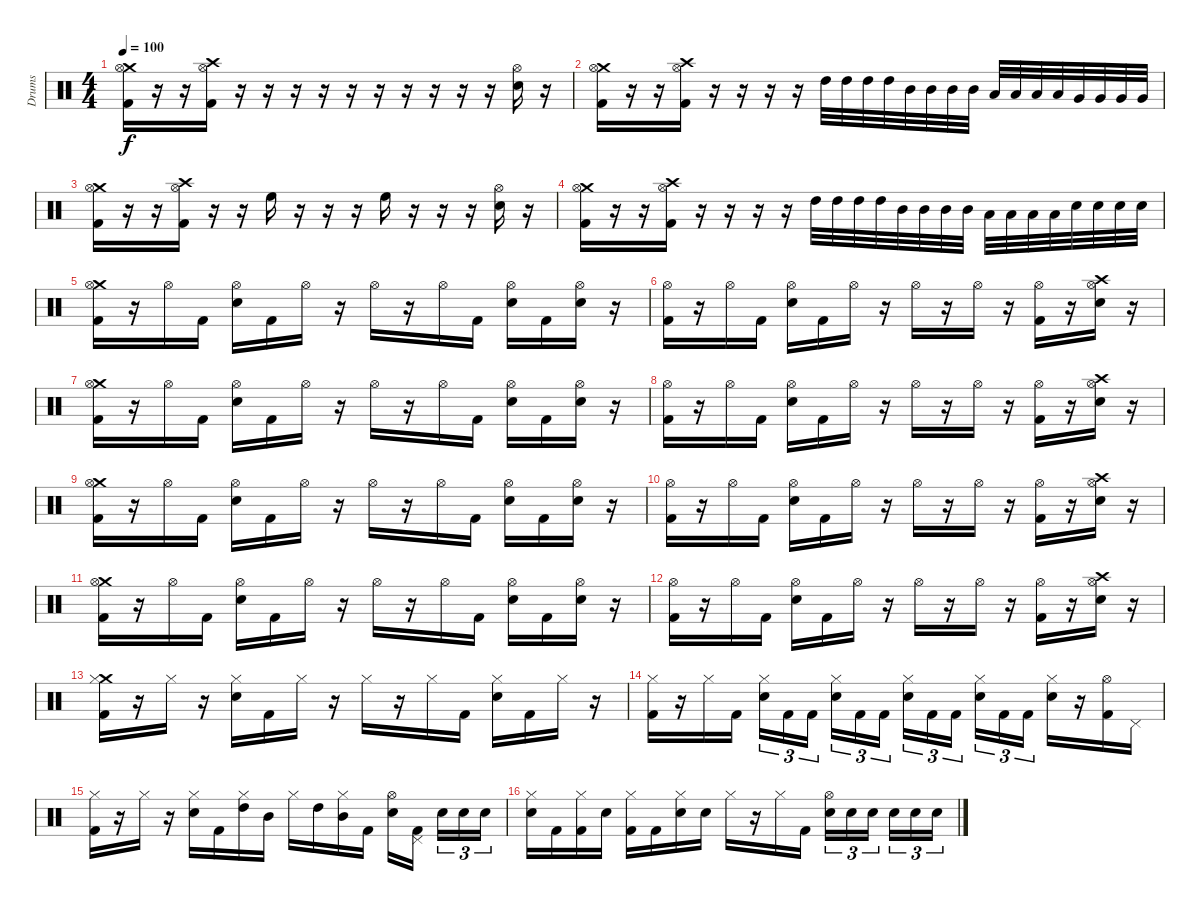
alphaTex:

\track ("Drums" "Drums") {instrument percussion}
\staff {score}
\articulation defaults
\ts (4 4)
\tempo 100
\clef neutral
\ks c
("Crash medium (hit)" "Hi-Hat (open)" "Kick (hit) 2").16{dy f} r.16 r.16 ("Crash high (hit)" "Hi-Hat (open)" "Kick (hit) 2").16 r.16 r.16 r.16 r.16 r.16 r.16 r.16 r.16 r.16 r.16 ("Hi-Hat (open)" "Electric Snare (hit)").16 r.16 |
("Crash medium (hit)" "Hi-Hat (open)" "Kick (hit) 2").16 r.16 r.16 ("Crash high (hit)" "Hi-Hat (open)" "Kick (hit) 2").16 r.16 r.16 r.16 r.16 "High Tom (hit)".32 "High Tom (hit)".32 "High Tom (hit)".32 "High Tom (hit)".32 "Mid Tom (hit)".32 "Mid Tom (hit)".32 "Mid Tom (hit)".32 "Mid Tom (hit)".32 "Low Tom (hit)".32 "Low Tom (hit)".32 "Low Tom (hit)".32 "Low Tom (hit)".32 "Very Low Tom (hit)".32 "Very Low Tom (hit)".32 "Very Low Tom (hit)".32 "Very Low Tom (hit)".32 |
("Crash medium (hit)" "Hi-Hat (open)" "Kick (hit) 2").16 r.16 r.16 ("Crash high (hit)" "Hi-Hat (open)" "Kick (hit) 2").16 r.16 r.16 "High Floor Tom (hit)".16 r.16 r.16 r.16 "High Floor Tom (hit)".16 r.16 r.16 r.16 ("Hi-Hat (open)" "Electric Snare (hit)").16 r.16 |
("Crash medium (hit)" "Hi-Hat (open)" "Kick (hit) 2").16 r.16 r.16 ("Crash high (hit)" "Hi-Hat (open)" "Kick (hit) 2").16 r.16 r.16 r.16 r.16 "High Tom (hit)".32 "High Tom (hit)".32 "High Tom (hit)".32 "High Tom (hit)".32 "Mid Tom (hit)".32 "Mid Tom (hit)".32 "Mid Tom (hit)".32 "Mid Tom (hit)".32 "Low Tom (hit)".32 "Low Tom (hit)".32 "Low Tom (hit)".32 "Low Tom (hit)".32 "Electric Snare (hit)".32 "Electric Snare (hit)".32 "Electric Snare (hit)".32 "Electric Snare (hit)".32 |
("Crash medium (hit)" "Hi-Hat (open)" "Kick (hit) 2").16 r.16 "Hi-Hat (open)".16 "Kick (hit) 2".16 ("Hi-Hat (open)" "Electric Snare (hit)").16 "Kick (hit) 2".16 "Hi-Hat (open)".16 r.16 "Hi-Hat (open)".16 r.16 "Hi-Hat (open)".16 "Kick (hit) 2".16 ("Hi-Hat (open)" "Electric Snare (hit)").16 "Kick (hit) 2".16 ("Hi-Hat (open)" "Electric Snare (hit)").16 r.16 |
("Hi-Hat (open)" "Kick (hit) 2").16 r.16 "Hi-Hat (open)".16 "Kick (hit) 2".16 ("Hi-Hat (open)" "Electric Snare (hit)").16 "Kick (hit) 2".16 "Hi-Hat (open)".16 r.16 "Hi-Hat (open)".16 r.16 "Hi-Hat (open)".16 r.16 ("Hi-Hat (open)" "Kick (hit) 2").16 r.16 ("Crash high (hit)" "Hi-Hat (open)" "Electric Snare (hit)").16 r.16 |
("Crash medium (hit)" "Hi-Hat (open)" "Kick (hit) 2").16 r.16 "Hi-Hat (open)".16 "Kick (hit) 2".16 ("Hi-Hat (open)" "Electric Snare (hit)").16 "Kick (hit) 2".16 "Hi-Hat (open)".16 r.16 "Hi-Hat (open)".16 r.16 "Hi-Hat (open)".16 "Kick (hit) 2".16 ("Hi-Hat (open)" "Electric Snare (hit)").16 "Kick (hit) 2".16 ("Hi-Hat (open)" "Electric Snare (hit)").16 r.16 |
("Hi-Hat (open)" "Kick (hit) 2").16 r.16 "Hi-Hat (open)".16 "Kick (hit) 2".16 ("Hi-Hat (open)" "Electric Snare (hit)").16 "Kick (hit) 2".16 "Hi-Hat (open)".16 r.16 "Hi-Hat (open)".16 r.16 "Hi-Hat (open)".16 r.16 ("Hi-Hat (open)" "Kick (hit) 2").16 r.16 ("Crash high (hit)" "Hi-Hat (open)" "Electric Snare (hit)").16 r.16 |
("Crash medium (hit)" "Hi-Hat (open)" "Kick (hit) 2").16 r.16 "Hi-Hat (open)".16 "Kick (hit) 2".16 ("Hi-Hat (open)" "Electric Snare (hit)").16 "Kick (hit) 2".16 "Hi-Hat (open)".16 r.16 "Hi-Hat (open)".16 r.16 "Hi-Hat (open)".16 "Kick (hit) 2".16 ("Hi-Hat (open)" "Electric Snare (hit)").16 "Kick (hit) 2".16 ("Hi-Hat (open)" "Electric Snare (hit)").16 r.16 |
("Hi-Hat (open)" "Kick (hit) 2").16 r.16 "Hi-Hat (open)".16 "Kick (hit) 2".16 ("Hi-Hat (open)" "Electric Snare (hit)").16 "Kick (hit) 2".16 "Hi-Hat (open)".16 r.16 "Hi-Hat (open)".16 r.16 "Hi-Hat (open)".16 r.16 ("Hi-Hat (open)" "Kick (hit) 2").16 r.16 ("Crash high (hit)" "Hi-Hat (open)" "Electric Snare (hit)").16 r.16 |
("Crash medium (hit)" "Hi-Hat (open)" "Kick (hit) 2").16 r.16 "Hi-Hat (open)".16 "Kick (hit) 2".16 ("Hi-Hat (open)" "Electric Snare (hit)").16 "Kick (hit) 2".16 "Hi-Hat (open)".16 r.16 "Hi-Hat (open)".16 r.16 "Hi-Hat (open)".16 "Kick (hit) 2".16 ("Hi-Hat (open)" "Electric Snare (hit)").16 "Kick (hit) 2".16 ("Hi-Hat (open)" "Electric Snare (hit)").16 r.16 |
("Hi-Hat (open)" "Kick (hit) 2").16 r.16 "Hi-Hat (open)".16 "Kick (hit) 2".16 ("Hi-Hat (open)" "Electric Snare (hit)").16 "Kick (hit) 2".16 "Hi-Hat (open)".16 r.16 "Hi-Hat (open)".16 r.16 "Hi-Hat (open)".16 r.16 ("Hi-Hat (open)" "Kick (hit) 2").16 r.16 ("Crash high (hit)" "Hi-Hat (open)" "Electric Snare (hit)").16 r.16 |
("Crash medium (hit)" "Hi-Hat (closed)" "Kick (hit) 2").16 r.16 "Hi-Hat (closed)".16 r.16 ("Hi-Hat (closed)" "Electric Snare (hit)").16 "Kick (hit) 2".16 "Hi-Hat (closed)".16 r.16 "Hi-Hat (closed)".16 r.16 "Hi-Hat (closed)".16 "Kick (hit) 2".16 ("Hi-Hat (closed)" "Electric Snare (hit)").16 "Kick (hit) 2".16 "Hi-Hat (closed)".16 r.16 |
("Hi-Hat (closed)" "Kick (hit) 2").16 r.16 "Hi-Hat (closed)".16 "Kick (hit) 2".16 ("Hi-Hat (closed)" "Electric Snare (hit)").16{tu (3 2)} "Kick (hit) 2".16{tu (3 2)} "Kick (hit) 2".16{tu (3 2)} ("Hi-Hat (closed)" "Electric Snare (hit)").16{tu (3 2)} "Kick (hit) 2".16{tu (3 2)} "Kick (hit) 2".16{tu (3 2)} ("Hi-Hat (closed)" "Electric Snare (hit)").16{tu (3 2)} "Kick (hit) 2".16{tu (3 2)} "Kick (hit) 2".16{tu (3 2)} ("Hi-Hat (closed)" "Electric Snare (hit)").16{tu (3 2)} "Kick (hit) 2".16{tu (3 2)} "Kick (hit) 2".16{tu (3 2)} ("Hi-Hat (closed)" "Electric Snare (hit)").16 r.16 ("Hi-Hat (open)" "Kick (hit) 2").16 "Pedal Hi-Hat (hit)".16 |
("Hi-Hat (closed)" "Kick (hit) 2").16 r.16 "Hi-Hat (closed)".16 r.16 ("Hi-Hat (closed)" "Electric Snare (hit)").16 "Kick (hit) 2".16 ("Hi-Hat (closed)" "High Tom (hit)").16 "Mid Tom (hit)".16 "Hi-Hat (closed)".16 "High Tom (hit)".16 ("Hi-Hat (closed)" "Mid Tom (hit)").16 "Kick (hit) 2".16 ("Hi-Hat (open)" "Electric Snare (hit)").16 ("Pedal Hi-Hat (hit)" "Kick (hit) 2").16 "Electric Snare (hit)".16{tu (3 2)} "Electric Snare (hit)".16{tu (3 2)} "Electric Snare (hit)".16{tu (3 2)} |
("Hi-Hat (closed)" "Electric Snare (hit)").16 "Kick (hit) 2".16 ("Hi-Hat (closed)" "Kick (hit) 2").16 "Electric Snare (hit)".16 ("Hi-Hat (closed)" "Kick (hit) 2").16 "Kick (hit) 2".16 ("Hi-Hat (closed)" "Electric Snare (hit)").16 "Electric Snare (hit)".16 "Hi-Hat (closed)".16 r.16 "Hi-Hat (closed)".16 "Kick (hit) 2".16 ("Hi-Hat (open)" "Electric Snare (hit)").16{tu (3 2)} "Electric Snare (hit)".16{tu (3 2)} "Electric Snare (hit)".16{tu (3 2)} "Electric Snare (hit)".16{tu (3 2)} "Electric Snare (hit)".16{tu (3 2)} "Electric Snare (hit)".16{tu (3 2)}
